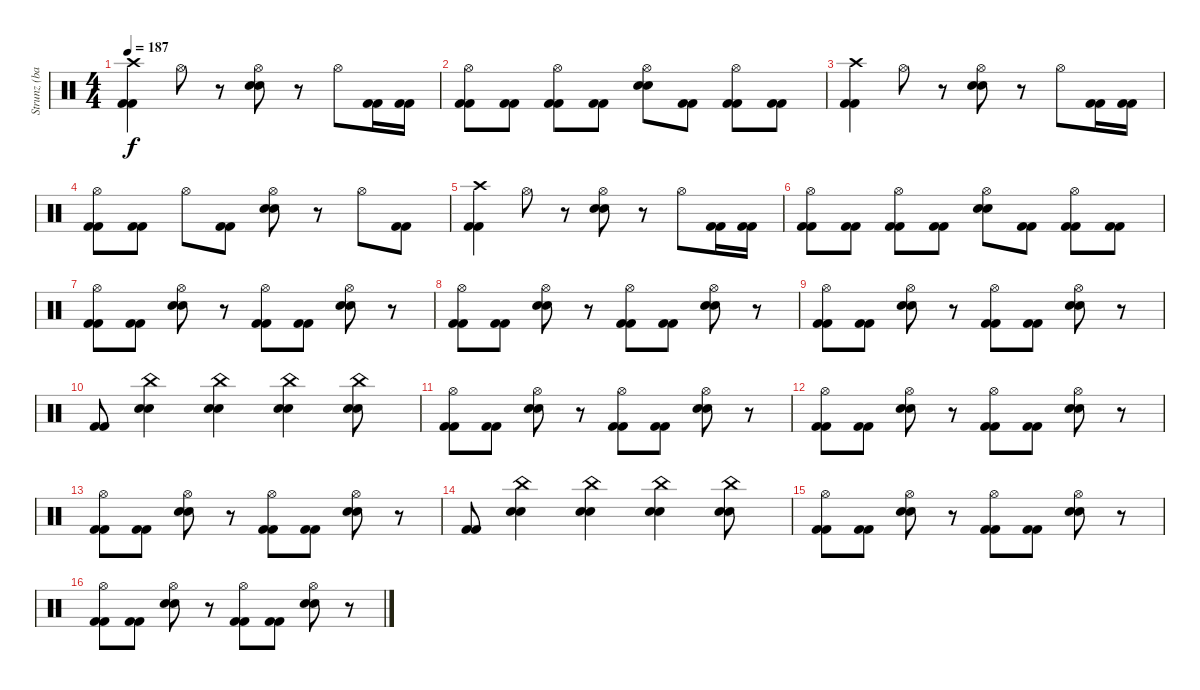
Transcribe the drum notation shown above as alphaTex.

\track ("Strunz (bateria)" "Strunz (ba") {instrument percussion}
\staff {score}
\articulation defaults
\ts (4 4)
\tempo 187
\clef neutral
\ks c
("Crash high (hit)" "Kick (hit) 2" "Kick (hit) 2").4{dy f} "Hi-Hat (open)".8 r.8 ("Hi-Hat (open)" "Snare (hit) 2" "Snare (hit) 2").8 r.8 "Hi-Hat (open)".8 ("Kick (hit) 2" "Kick (hit) 2").16 ("Kick (hit) 2" "Kick (hit) 2").16 |
("Hi-Hat (open)" "Kick (hit) 2" "Kick (hit) 2").8 ("Kick (hit) 2" "Kick (hit) 2").8 ("Hi-Hat (open)" "Kick (hit) 2" "Kick (hit) 2").8 ("Kick (hit) 2" "Kick (hit) 2").8 ("Hi-Hat (open)" "Snare (hit) 2" "Snare (hit) 2").8 ("Kick (hit) 2" "Kick (hit) 2").8 ("Hi-Hat (open)" "Kick (hit) 2" "Kick (hit) 2").8 ("Kick (hit) 2" "Kick (hit) 2").8 |
("Crash high (hit)" "Kick (hit) 2" "Kick (hit) 2").4 "Hi-Hat (open)".8 r.8 ("Hi-Hat (open)" "Snare (hit) 2" "Snare (hit) 2").8 r.8 "Hi-Hat (open)".8 ("Kick (hit) 2" "Kick (hit) 2").16 ("Kick (hit) 2" "Kick (hit) 2").16 |
("Hi-Hat (open)" "Kick (hit) 2" "Kick (hit) 2").8 ("Kick (hit) 2" "Kick (hit) 2").8 "Hi-Hat (open)".8 ("Kick (hit) 2" "Kick (hit) 2").8 ("Hi-Hat (open)" "Snare (hit) 2" "Snare (hit) 2").8 r.8 "Hi-Hat (open)".8 ("Kick (hit) 2" "Kick (hit) 2").8 |
("Crash high (hit)" "Kick (hit) 2" "Kick (hit) 2").4 "Hi-Hat (open)".8 r.8 ("Hi-Hat (open)" "Snare (hit) 2" "Snare (hit) 2").8 r.8 "Hi-Hat (open)".8 ("Kick (hit) 2" "Kick (hit) 2").16 ("Kick (hit) 2" "Kick (hit) 2").16 |
("Hi-Hat (open)" "Kick (hit) 2" "Kick (hit) 2").8 ("Kick (hit) 2" "Kick (hit) 2").8 ("Hi-Hat (open)" "Kick (hit) 2" "Kick (hit) 2").8 ("Kick (hit) 2" "Kick (hit) 2").8 ("Hi-Hat (open)" "Snare (hit) 2" "Snare (hit) 2").8 ("Kick (hit) 2" "Kick (hit) 2").8 ("Hi-Hat (open)" "Kick (hit) 2" "Kick (hit) 2").8 ("Kick (hit) 2" "Kick (hit) 2").8 |
("Hi-Hat (open)" "Kick (hit) 2" "Kick (hit) 2").8 ("Kick (hit) 2" "Kick (hit) 2").8 ("Hi-Hat (open)" "Snare (hit) 2" "Snare (hit) 2").8 r.8 ("Hi-Hat (open)" "Kick (hit) 2" "Kick (hit) 2").8 ("Kick (hit) 2" "Kick (hit) 2").8 ("Hi-Hat (open)" "Snare (hit) 2" "Snare (hit) 2").8 r.8 |
("Hi-Hat (open)" "Kick (hit) 2" "Kick (hit) 2").8 ("Kick (hit) 2" "Kick (hit) 2").8 ("Hi-Hat (open)" "Snare (hit) 2" "Snare (hit) 2").8 r.8 ("Hi-Hat (open)" "Kick (hit) 2" "Kick (hit) 2").8 ("Kick (hit) 2" "Kick (hit) 2").8 ("Hi-Hat (open)" "Snare (hit) 2" "Snare (hit) 2").8 r.8 |
("Hi-Hat (open)" "Kick (hit) 2" "Kick (hit) 2").8 ("Kick (hit) 2" "Kick (hit) 2").8 ("Hi-Hat (open)" "Snare (hit) 2" "Snare (hit) 2").8 r.8 ("Hi-Hat (open)" "Kick (hit) 2" "Kick (hit) 2").8 ("Kick (hit) 2" "Kick (hit) 2").8 ("Hi-Hat (open)" "Snare (hit) 2" "Snare (hit) 2").8 r.8 |
("Kick (hit) 2" "Kick (hit) 2").8 ("China (hit)" "Snare (hit) 2" "Snare (hit) 2").4 ("China (hit)" "Snare (hit) 2" "Snare (hit) 2").4 ("China (hit)" "Snare (hit) 2" "Snare (hit) 2").4 ("China (hit)" "Snare (hit) 2" "Snare (hit) 2").8 |
("Hi-Hat (open)" "Kick (hit) 2" "Kick (hit) 2").8 ("Kick (hit) 2" "Kick (hit) 2").8 ("Hi-Hat (open)" "Snare (hit) 2" "Snare (hit) 2").8 r.8 ("Hi-Hat (open)" "Kick (hit) 2" "Kick (hit) 2").8 ("Kick (hit) 2" "Kick (hit) 2").8 ("Hi-Hat (open)" "Snare (hit) 2" "Snare (hit) 2").8 r.8 |
("Hi-Hat (open)" "Kick (hit) 2" "Kick (hit) 2").8 ("Kick (hit) 2" "Kick (hit) 2").8 ("Hi-Hat (open)" "Snare (hit) 2" "Snare (hit) 2").8 r.8 ("Hi-Hat (open)" "Kick (hit) 2" "Kick (hit) 2").8 ("Kick (hit) 2" "Kick (hit) 2").8 ("Hi-Hat (open)" "Snare (hit) 2" "Snare (hit) 2").8 r.8 |
("Hi-Hat (open)" "Kick (hit) 2" "Kick (hit) 2").8 ("Kick (hit) 2" "Kick (hit) 2").8 ("Hi-Hat (open)" "Snare (hit) 2" "Snare (hit) 2").8 r.8 ("Hi-Hat (open)" "Kick (hit) 2" "Kick (hit) 2").8 ("Kick (hit) 2" "Kick (hit) 2").8 ("Hi-Hat (open)" "Snare (hit) 2" "Snare (hit) 2").8 r.8 |
("Kick (hit) 2" "Kick (hit) 2").8 ("China (hit)" "Snare (hit) 2" "Snare (hit) 2").4 ("China (hit)" "Snare (hit) 2" "Snare (hit) 2").4 ("China (hit)" "Snare (hit) 2" "Snare (hit) 2").4 ("China (hit)" "Snare (hit) 2" "Snare (hit) 2").8 |
("Hi-Hat (open)" "Kick (hit) 2" "Kick (hit) 2").8 ("Kick (hit) 2" "Kick (hit) 2").8 ("Hi-Hat (open)" "Snare (hit) 2" "Snare (hit) 2").8 r.8 ("Hi-Hat (open)" "Kick (hit) 2" "Kick (hit) 2").8 ("Kick (hit) 2" "Kick (hit) 2").8 ("Hi-Hat (open)" "Snare (hit) 2" "Snare (hit) 2").8 r.8 |
("Hi-Hat (open)" "Kick (hit) 2" "Kick (hit) 2").8 ("Kick (hit) 2" "Kick (hit) 2").8 ("Hi-Hat (open)" "Snare (hit) 2" "Snare (hit) 2").8 r.8 ("Hi-Hat (open)" "Kick (hit) 2" "Kick (hit) 2").8 ("Kick (hit) 2" "Kick (hit) 2").8 ("Hi-Hat (open)" "Snare (hit) 2" "Snare (hit) 2").8 r.8
